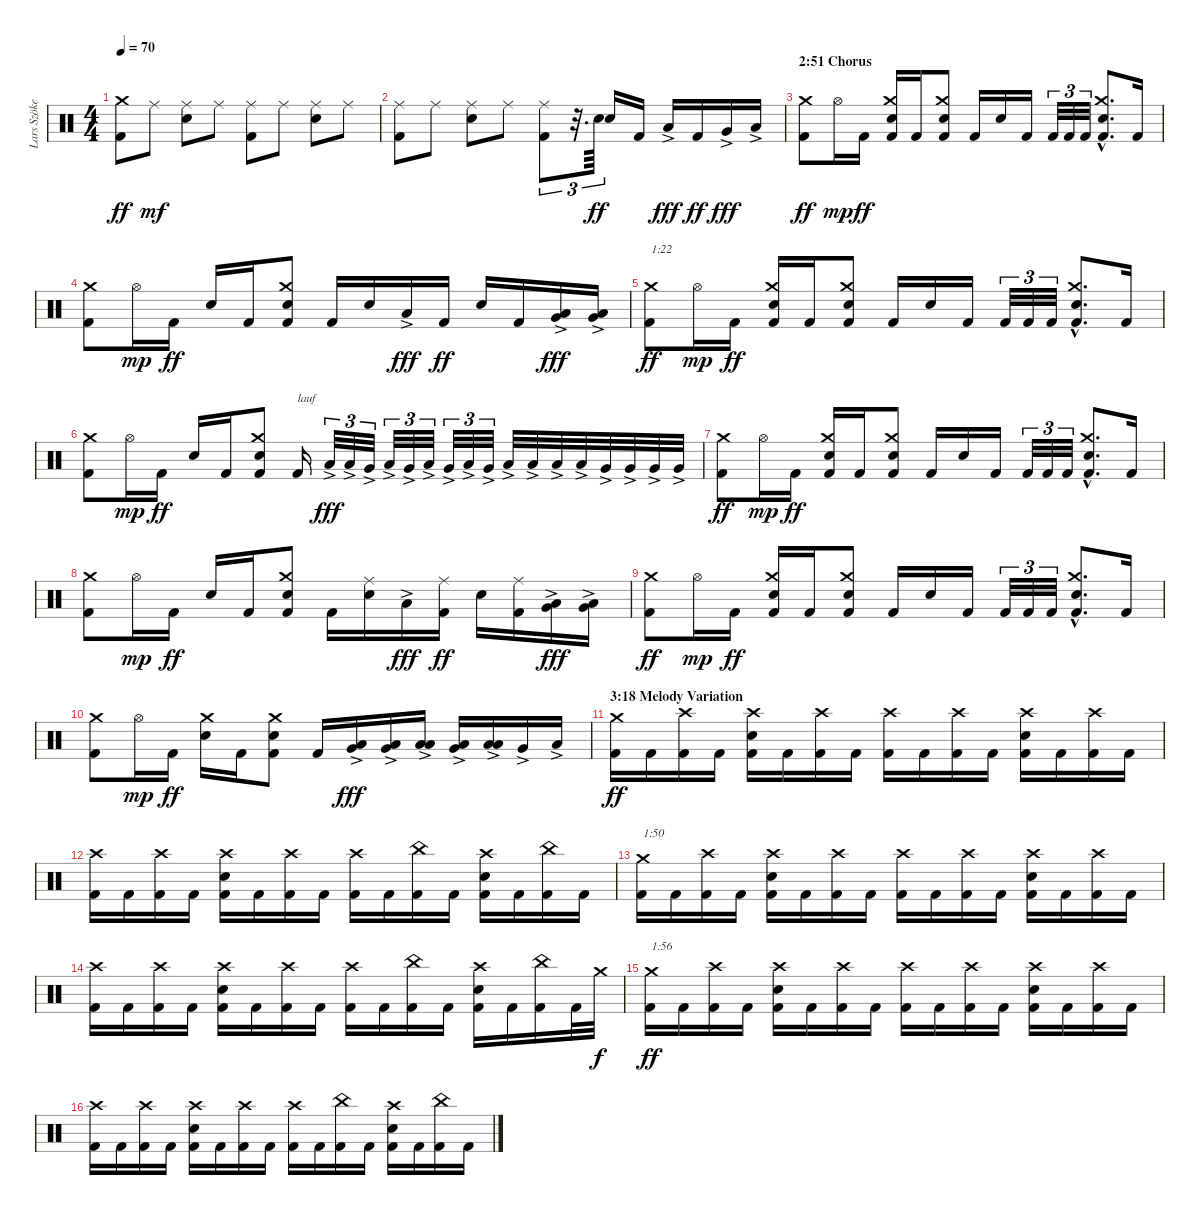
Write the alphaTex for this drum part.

\track ("Lars Szöke (Drums)" "Lars Szöke") {instrument percussion}
\staff {score}
\articulation defaults
\ts (4 4)
\tempo 70
\clef neutral
\ks c
("Kick (hit) 2" "Crash medium (hit)").8{dy ff} "Ride (middle)".8{dy mf} ("Electric Snare (hit)" "Ride (middle)").8 "Ride (middle)".8 ("Kick (hit) 2" "Ride (middle)").8 "Ride (middle)".8 ("Electric Snare (hit)" "Ride (middle)").8 "Ride (middle)".8 |
("Kick (hit) 2" "Ride (middle)").8 "Ride (middle)".8 ("Electric Snare (hit)" "Ride (middle)").8 "Ride (middle)".8 ("Kick (hit) 2" "Ride (middle)").8{tu (3 2)} r.32{d tu (3 2)} "Electric Snare (hit)".64{tu (3 2) dy ff} "Electric Snare (hit)".16 "Kick (hit) 2".16 "Low Tom (hit)"{ac}.16{dy fff} "Kick (hit) 2".16{dy ff} "Very Low Tom (hit)"{ac}.16{dy fff} "Low Floor Tom (hit)"{ac}.16 |
\section ("" "2:51 Chorus")
("Kick (hit) 2" "Crash medium (hit)").8{dy ff} "Hi-Hat (open)".16{dy mp} "Kick (hit) 2".16{dy ff} ("Kick (hit) 2" "Electric Snare (hit)" "Crash medium (hit)").16 "Kick (hit) 2".16 ("Kick (hit) 2" "Electric Snare (hit)" "Crash medium (hit)").8 "Kick (hit) 2".16 "Electric Snare (hit)".16 "Kick (hit) 2".16 "Kick (hit) 2".32{tu (3 2)} "Kick (hit) 2".32{tu (3 2)} "Kick (hit) 2".32{tu (3 2)} ("Kick (hit) 2"{hac} "Electric Snare (hit)"{hac} "Crash medium (hit)"{hac}).8{d} "Kick (hit) 2".16 |
("Kick (hit) 2" "Crash medium (hit)").8 "Hi-Hat (open)".16{dy mp} "Kick (hit) 2".16{dy ff} "Electric Snare (hit)".16 "Kick (hit) 2".16 ("Kick (hit) 2" "Electric Snare (hit)" "Crash medium (hit)").8 "Kick (hit) 2".16 "Electric Snare (hit)".16 "Low Tom (hit)"{ac}.16{dy fff} "Kick (hit) 2".16{dy ff} "Electric Snare (hit)".16 "Kick (hit) 2".16 ("Low Tom (hit)"{ac} "Very Low Tom (hit)"{ac}).16{dy fff} ("Very Low Tom (hit)"{ac} "Low Floor Tom (hit)"{ac}).16 |
("Kick (hit) 2" "Crash medium (hit)").8{txt "1:22" dy ff} "Hi-Hat (open)".16{dy mp} "Kick (hit) 2".16{dy ff} ("Kick (hit) 2" "Electric Snare (hit)" "Crash medium (hit)").16 "Kick (hit) 2".16 ("Kick (hit) 2" "Electric Snare (hit)" "Crash medium (hit)").8 "Kick (hit) 2".16 "Electric Snare (hit)".16 "Kick (hit) 2".16 "Kick (hit) 2".32{tu (3 2)} "Kick (hit) 2".32{tu (3 2)} "Kick (hit) 2".32{tu (3 2)} ("Kick (hit) 2"{hac} "Electric Snare (hit)"{hac} "Crash medium (hit)"{hac}).8{d} "Kick (hit) 2".16 |
("Kick (hit) 2" "Crash medium (hit)").8 "Hi-Hat (open)".16{dy mp} "Kick (hit) 2".16{dy ff} "Electric Snare (hit)".16 "Kick (hit) 2".16 ("Kick (hit) 2" "Electric Snare (hit)" "Crash medium (hit)").8 "Kick (hit) 2".16{txt "lauf"} "Low Tom (hit)"{ac}.32{tu (3 2) dy fff} "Low Tom (hit)"{ac}.32{tu (3 2)} "Very Low Tom (hit)"{ac}.32{tu (3 2)} "Low Tom (hit)"{ac}.32{tu (3 2)} "Very Low Tom (hit)"{ac}.32{tu (3 2)} "Low Floor Tom (hit)"{ac}.32{tu (3 2)} "Very Low Tom (hit)"{ac}.32{tu (3 2)} "Low Floor Tom (hit)"{ac}.32{tu (3 2)} "Very Low Tom (hit)"{ac}.32{tu (3 2)} "Low Tom (hit)"{ac}.32 "Low Tom (hit)"{ac}.32 "Low Tom (hit)"{ac}.32 "Low Tom (hit)"{ac}.32 "Very Low Tom (hit)"{ac}.32 "Very Low Tom (hit)"{ac}.32 "Very Low Tom (hit)"{ac}.32 "Very Low Tom (hit)"{ac}.32 |
("Kick (hit) 2" "Crash medium (hit)").8{dy ff} "Hi-Hat (open)".16{dy mp} "Kick (hit) 2".16{dy ff} ("Kick (hit) 2" "Electric Snare (hit)" "Crash medium (hit)").16 "Kick (hit) 2".16 ("Kick (hit) 2" "Electric Snare (hit)" "Crash medium (hit)").8 "Kick (hit) 2".16 "Electric Snare (hit)".16 "Kick (hit) 2".16 "Kick (hit) 2".32{tu (3 2)} "Kick (hit) 2".32{tu (3 2)} "Kick (hit) 2".32{tu (3 2)} ("Kick (hit) 2"{hac} "Electric Snare (hit)"{hac} "Crash medium (hit)"{hac}).8{d} "Kick (hit) 2".16 |
("Kick (hit) 2" "Crash medium (hit)").8 "Hi-Hat (open)".16{dy mp} "Kick (hit) 2".16{dy ff} "Electric Snare (hit)".16 "Kick (hit) 2".16 ("Kick (hit) 2" "Electric Snare (hit)" "Crash medium (hit)").8 "Kick (hit) 2".16 ("Electric Snare (hit)" "Ride (middle)").16 "Low Tom (hit)"{ac}.16{dy fff} ("Kick (hit) 2" "Ride (middle)").16{dy ff} "Electric Snare (hit)".16 ("Kick (hit) 2" "Ride (middle)").16 ("Low Tom (hit)"{ac} "Very Low Tom (hit)"{ac}).16{dy fff} ("Very Low Tom (hit)"{ac} "Low Floor Tom (hit)"{ac}).16 |
("Kick (hit) 2" "Crash medium (hit)").8{dy ff} "Hi-Hat (open)".16{dy mp} "Kick (hit) 2".16{dy ff} ("Kick (hit) 2" "Electric Snare (hit)" "Crash medium (hit)").16 "Kick (hit) 2".16 ("Kick (hit) 2" "Electric Snare (hit)" "Crash medium (hit)").8 "Kick (hit) 2".16 "Electric Snare (hit)".16 "Kick (hit) 2".16 "Kick (hit) 2".32{tu (3 2)} "Kick (hit) 2".32{tu (3 2)} "Kick (hit) 2".32{tu (3 2)} ("Kick (hit) 2"{hac} "Electric Snare (hit)"{hac} "Crash medium (hit)"{hac}).8{d} "Kick (hit) 2".16 |
("Kick (hit) 2" "Crash medium (hit)").8 "Hi-Hat (open)".16{dy mp} "Kick (hit) 2".16{dy ff} ("Electric Snare (hit)" "Crash medium (hit)").16 "Kick (hit) 2".16 ("Kick (hit) 2" "Electric Snare (hit)" "Crash medium (hit)").8 "Kick (hit) 2".16 ("Low Tom (hit)"{ac} "Very Low Tom (hit)"{ac}).16{dy fff} ("Low Tom (hit)"{ac} "Very Low Tom (hit)"{ac}).16 ("Low Tom (hit)"{ac} "Low Floor Tom (hit)"{ac}).16 ("Low Tom (hit)"{ac} "Very Low Tom (hit)"{ac}).16 ("Low Tom (hit)"{ac} "Low Floor Tom (hit)"{ac}).16 "Very Low Tom (hit)"{ac}.16 "Low Floor Tom (hit)"{ac}.16 |
\section ("" "3:18 Melody Variation")
("Kick (hit) 2" "Crash medium (hit)").16{dy ff} "Kick (hit) 2".16 ("Kick (hit) 2" "Crash high (hit)").16 "Kick (hit) 2".16 ("Kick (hit) 2" "Electric Snare (hit)" "Crash high (hit)").16 "Kick (hit) 2".16 ("Kick (hit) 2" "Crash high (hit)").16 "Kick (hit) 2".16 ("Kick (hit) 2" "Crash high (hit)").16 "Kick (hit) 2".16 ("Kick (hit) 2" "Crash high (hit)").16 "Kick (hit) 2".16 ("Kick (hit) 2" "Electric Snare (hit)" "Crash high (hit)").16 "Kick (hit) 2".16 ("Kick (hit) 2" "Crash high (hit)").16 "Kick (hit) 2".16 |
("Kick (hit) 2" "Crash high (hit)").16 "Kick (hit) 2".16 ("Kick (hit) 2" "Crash high (hit)").16 "Kick (hit) 2".16 ("Kick (hit) 2" "Electric Snare (hit)" "Crash high (hit)").16 "Kick (hit) 2".16 ("Kick (hit) 2" "Crash high (hit)").16 "Kick (hit) 2".16 ("Kick (hit) 2" "Crash high (hit)").16 "Kick (hit) 2".16 ("Kick (hit) 2" "China (hit)").16 "Kick (hit) 2".16 ("Kick (hit) 2" "Electric Snare (hit)" "Crash high (hit)").16 "Kick (hit) 2".16 ("Kick (hit) 2" "China (hit)").16 "Kick (hit) 2".16 |
("Kick (hit) 2" "Crash medium (hit)").16{txt "1:50"} "Kick (hit) 2".16 ("Kick (hit) 2" "Crash high (hit)").16 "Kick (hit) 2".16 ("Kick (hit) 2" "Electric Snare (hit)" "Crash high (hit)").16 "Kick (hit) 2".16 ("Kick (hit) 2" "Crash high (hit)").16 "Kick (hit) 2".16 ("Kick (hit) 2" "Crash high (hit)").16 "Kick (hit) 2".16 ("Kick (hit) 2" "Crash high (hit)").16 "Kick (hit) 2".16 ("Kick (hit) 2" "Electric Snare (hit)" "Crash high (hit)").16 "Kick (hit) 2".16 ("Kick (hit) 2" "Crash high (hit)").16 "Kick (hit) 2".16 |
("Kick (hit) 2" "Crash high (hit)").16 "Kick (hit) 2".16 ("Kick (hit) 2" "Crash high (hit)").16 "Kick (hit) 2".16 ("Kick (hit) 2" "Electric Snare (hit)" "Crash high (hit)").16 "Kick (hit) 2".16 ("Kick (hit) 2" "Crash high (hit)").16 "Kick (hit) 2".16 ("Kick (hit) 2" "Crash high (hit)").16 "Kick (hit) 2".16 ("Kick (hit) 2" "China (hit)").16 "Kick (hit) 2".16 ("Kick (hit) 2" "Electric Snare (hit)" "Crash high (hit)").16 "Kick (hit) 2".16 ("Kick (hit) 2" "China (hit)").16 "Kick (hit) 2".32 "Crash medium (hit)".32{dy f} |
("Kick (hit) 2" "Crash medium (hit)").16{txt "1:56" dy ff} "Kick (hit) 2".16 ("Kick (hit) 2" "Crash high (hit)").16 "Kick (hit) 2".16 ("Kick (hit) 2" "Electric Snare (hit)" "Crash high (hit)").16 "Kick (hit) 2".16 ("Kick (hit) 2" "Crash high (hit)").16 "Kick (hit) 2".16 ("Kick (hit) 2" "Crash high (hit)").16 "Kick (hit) 2".16 ("Kick (hit) 2" "Crash high (hit)").16 "Kick (hit) 2".16 ("Kick (hit) 2" "Electric Snare (hit)" "Crash high (hit)").16 "Kick (hit) 2".16 ("Kick (hit) 2" "Crash high (hit)").16 "Kick (hit) 2".16 |
("Kick (hit) 2" "Crash high (hit)").16 "Kick (hit) 2".16 ("Kick (hit) 2" "Crash high (hit)").16 "Kick (hit) 2".16 ("Kick (hit) 2" "Electric Snare (hit)" "Crash high (hit)").16 "Kick (hit) 2".16 ("Kick (hit) 2" "Crash high (hit)").16 "Kick (hit) 2".16 ("Kick (hit) 2" "Crash high (hit)").16 "Kick (hit) 2".16 ("Kick (hit) 2" "China (hit)").16 "Kick (hit) 2".16 ("Kick (hit) 2" "Electric Snare (hit)" "Crash high (hit)").16 "Kick (hit) 2".16 ("Kick (hit) 2" "China (hit)").16 "Kick (hit) 2".16
